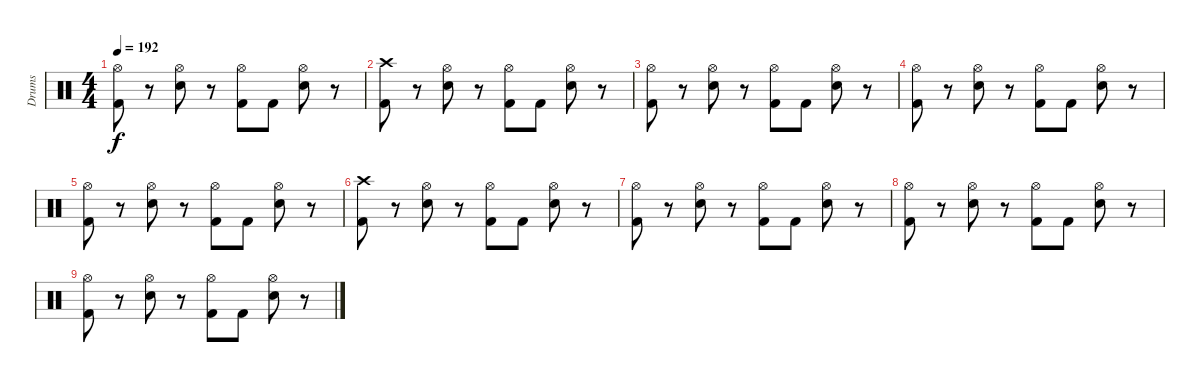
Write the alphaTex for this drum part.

\track ("Drums" "Drums") {instrument percussion}
\staff {score}
\articulation defaults
\ts (4 4)
\tempo 192
\clef neutral
\ks c
("Hi-Hat (open)" "Kick (hit) 2").8{dy f volume 9} r.8 ("Hi-Hat (open)" "Electric Snare (hit)").8{volume 9} r.8 ("Hi-Hat (open)" "Kick (hit) 2").8{volume 8} "Kick (hit) 2".8{volume 8} ("Hi-Hat (open)" "Electric Snare (hit)").8{volume 8} r.8 |
("Crash high (hit)" "Kick (hit) 2").8{volume 8} r.8 ("Hi-Hat (open)" "Electric Snare (hit)").8{volume 8} r.8 ("Hi-Hat (open)" "Kick (hit) 2").8{volume 7} "Kick (hit) 2".8{volume 7} ("Hi-Hat (open)" "Electric Snare (hit)").8{volume 7} r.8 |
("Hi-Hat (open)" "Kick (hit) 2").8{volume 7} r.8 ("Hi-Hat (open)" "Electric Snare (hit)").8{volume 7} r.8 ("Hi-Hat (open)" "Kick (hit) 2").8{volume 6} "Kick (hit) 2".8{volume 6} ("Hi-Hat (open)" "Electric Snare (hit)").8{volume 6} r.8 |
("Hi-Hat (open)" "Kick (hit) 2").8{volume 6} r.8 ("Hi-Hat (open)" "Electric Snare (hit)").8{volume 6} r.8 ("Hi-Hat (open)" "Kick (hit) 2").8{volume 5} "Kick (hit) 2".8{volume 5} ("Hi-Hat (open)" "Electric Snare (hit)").8{volume 5} r.8 |
("Hi-Hat (open)" "Kick (hit) 2").8{volume 5} r.8 ("Hi-Hat (open)" "Electric Snare (hit)").8{volume 5} r.8 ("Hi-Hat (open)" "Kick (hit) 2").8{volume 4} "Kick (hit) 2".8{volume 4} ("Hi-Hat (open)" "Electric Snare (hit)").8{volume 4} r.8 |
("Crash high (hit)" "Kick (hit) 2").8{volume 4} r.8 ("Hi-Hat (open)" "Electric Snare (hit)").8{volume 4} r.8 ("Hi-Hat (open)" "Kick (hit) 2").8{volume 3} "Kick (hit) 2".8{volume 3} ("Hi-Hat (open)" "Electric Snare (hit)").8{volume 3} r.8 |
("Hi-Hat (open)" "Kick (hit) 2").8{volume 3} r.8 ("Hi-Hat (open)" "Electric Snare (hit)").8{volume 3} r.8 ("Hi-Hat (open)" "Kick (hit) 2").8{volume 2} "Kick (hit) 2".8{volume 2} ("Hi-Hat (open)" "Electric Snare (hit)").8{volume 2} r.8 |
("Hi-Hat (open)" "Kick (hit) 2").8{volume 2} r.8 ("Hi-Hat (open)" "Electric Snare (hit)").8{volume 2} r.8 ("Hi-Hat (open)" "Kick (hit) 2").8{volume 1} "Kick (hit) 2".8{volume 1} ("Hi-Hat (open)" "Electric Snare (hit)").8{volume 1} r.8 |
("Hi-Hat (open)" "Kick (hit) 2").8{volume 1} r.8 ("Hi-Hat (open)" "Electric Snare (hit)").8{volume 1} r.8 ("Hi-Hat (open)" "Kick (hit) 2").8{volume 0} "Kick (hit) 2".8{volume 0} ("Hi-Hat (open)" "Electric Snare (hit)").8{volume 0} r.8
